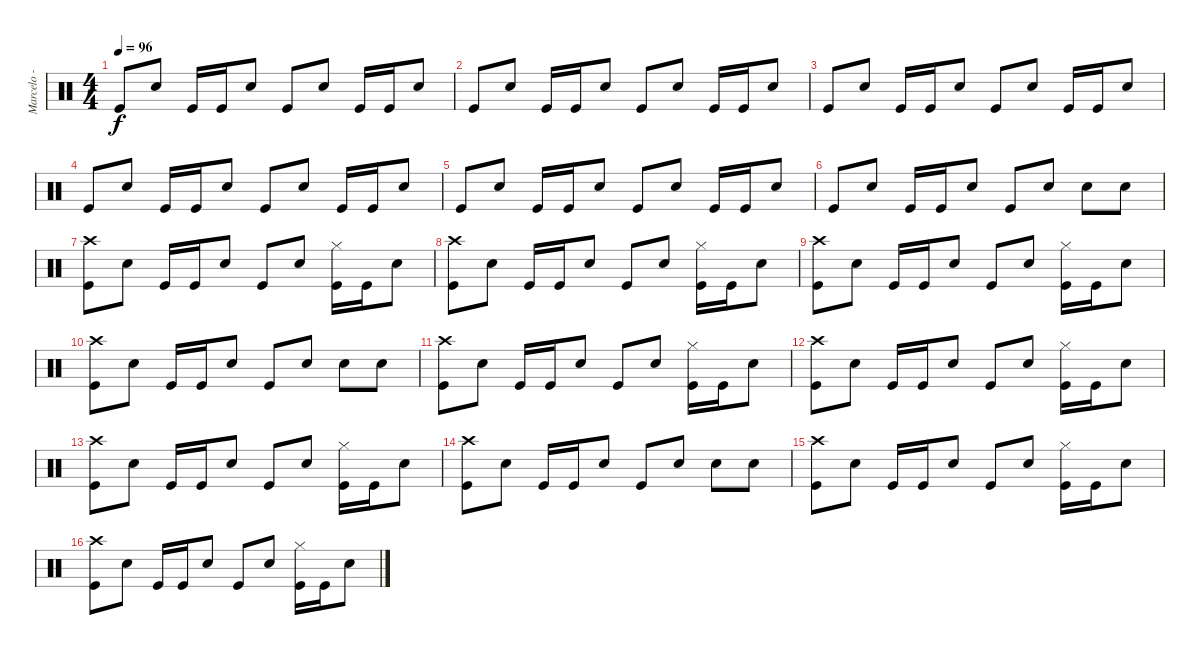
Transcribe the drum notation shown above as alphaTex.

\track ("Marcelo - Percusión" "Marcelo - ") {instrument percussion}
\staff {score}
\articulation defaults
\ts (4 4)
\tempo 96
\clef neutral
\ks c "Kick (hit)".8{dy f} "Electric Snare (hit)".8 "Kick (hit)".16 "Kick (hit)".16 "Electric Snare (hit)".8 "Kick (hit)".8 "Electric Snare (hit)".8 "Kick (hit)".16 "Kick (hit)".16 "Electric Snare (hit)".8
|
"Kick (hit)".8 "Electric Snare (hit)".8 "Kick (hit)".16 "Kick (hit)".16 "Electric Snare (hit)".8 "Kick (hit)".8 "Electric Snare (hit)".8 "Kick (hit)".16 "Kick (hit)".16 "Electric Snare (hit)".8 |
"Kick (hit)".8 "Electric Snare (hit)".8 "Kick (hit)".16 "Kick (hit)".16 "Electric Snare (hit)".8 "Kick (hit)".8 "Electric Snare (hit)".8 "Kick (hit)".16 "Kick (hit)".16 "Electric Snare (hit)".8 |
"Kick (hit)".8 "Electric Snare (hit)".8 "Kick (hit)".16 "Kick (hit)".16 "Electric Snare (hit)".8 "Kick (hit)".8 "Electric Snare (hit)".8 "Kick (hit)".16 "Kick (hit)".16 "Electric Snare (hit)".8 |
"Kick (hit)".8 "Electric Snare (hit)".8 "Kick (hit)".16 "Kick (hit)".16 "Electric Snare (hit)".8 "Kick (hit)".8 "Electric Snare (hit)".8 "Kick (hit)".16 "Kick (hit)".16 "Electric Snare (hit)".8 |
"Kick (hit)".8 "Electric Snare (hit)".8 "Kick (hit)".16 "Kick (hit)".16 "Electric Snare (hit)".8 "Kick (hit)".8 "Electric Snare (hit)".8 "Electric Snare (hit)".8 "Electric Snare (hit)".8 |
("Crash high (hit)" "Kick (hit)").8 "Electric Snare (hit)".8 "Kick (hit)".16 "Kick (hit)".16 "Electric Snare (hit)".8 "Kick (hit)".8 "Electric Snare (hit)".8 ("Hi-Hat (closed)" "Kick (hit)").16 "Kick (hit)".16 "Electric Snare (hit)".8 |
("Crash high (hit)" "Kick (hit)").8 "Electric Snare (hit)".8 "Kick (hit)".16 "Kick (hit)".16 "Electric Snare (hit)".8 "Kick (hit)".8 "Electric Snare (hit)".8 ("Hi-Hat (closed)" "Kick (hit)").16 "Kick (hit)".16 "Electric Snare (hit)".8 |
("Crash high (hit)" "Kick (hit)").8 "Electric Snare (hit)".8 "Kick (hit)".16 "Kick (hit)".16 "Electric Snare (hit)".8 "Kick (hit)".8 "Electric Snare (hit)".8 ("Hi-Hat (closed)" "Kick (hit)").16 "Kick (hit)".16 "Electric Snare (hit)".8 |
("Crash high (hit)" "Kick (hit)").8 "Electric Snare (hit)".8 "Kick (hit)".16 "Kick (hit)".16 "Electric Snare (hit)".8 "Kick (hit)".8 "Electric Snare (hit)".8 "Electric Snare (hit)".8 "Electric Snare (hit)".8 |
("Crash high (hit)" "Kick (hit)").8 "Electric Snare (hit)".8 "Kick (hit)".16 "Kick (hit)".16 "Electric Snare (hit)".8 "Kick (hit)".8 "Electric Snare (hit)".8 ("Hi-Hat (closed)" "Kick (hit)").16 "Kick (hit)".16 "Electric Snare (hit)".8 |
("Crash high (hit)" "Kick (hit)").8 "Electric Snare (hit)".8 "Kick (hit)".16 "Kick (hit)".16 "Electric Snare (hit)".8 "Kick (hit)".8 "Electric Snare (hit)".8 ("Hi-Hat (closed)" "Kick (hit)").16 "Kick (hit)".16 "Electric Snare (hit)".8 |
("Crash high (hit)" "Kick (hit)").8 "Electric Snare (hit)".8 "Kick (hit)".16 "Kick (hit)".16 "Electric Snare (hit)".8 "Kick (hit)".8 "Electric Snare (hit)".8 ("Hi-Hat (closed)" "Kick (hit)").16 "Kick (hit)".16 "Electric Snare (hit)".8 |
("Crash high (hit)" "Kick (hit)").8 "Electric Snare (hit)".8 "Kick (hit)".16 "Kick (hit)".16 "Electric Snare (hit)".8 "Kick (hit)".8 "Electric Snare (hit)".8 "Electric Snare (hit)".8 "Electric Snare (hit)".8 |
("Crash high (hit)" "Kick (hit)").8 "Electric Snare (hit)".8 "Kick (hit)".16 "Kick (hit)".16 "Electric Snare (hit)".8 "Kick (hit)".8 "Electric Snare (hit)".8 ("Hi-Hat (closed)" "Kick (hit)").16 "Kick (hit)".16 "Electric Snare (hit)".8 |
("Crash high (hit)" "Kick (hit)").8 "Electric Snare (hit)".8 "Kick (hit)".16 "Kick (hit)".16 "Electric Snare (hit)".8 "Kick (hit)".8 "Electric Snare (hit)".8 ("Hi-Hat (closed)" "Kick (hit)").16 "Kick (hit)".16 "Electric Snare (hit)".8
